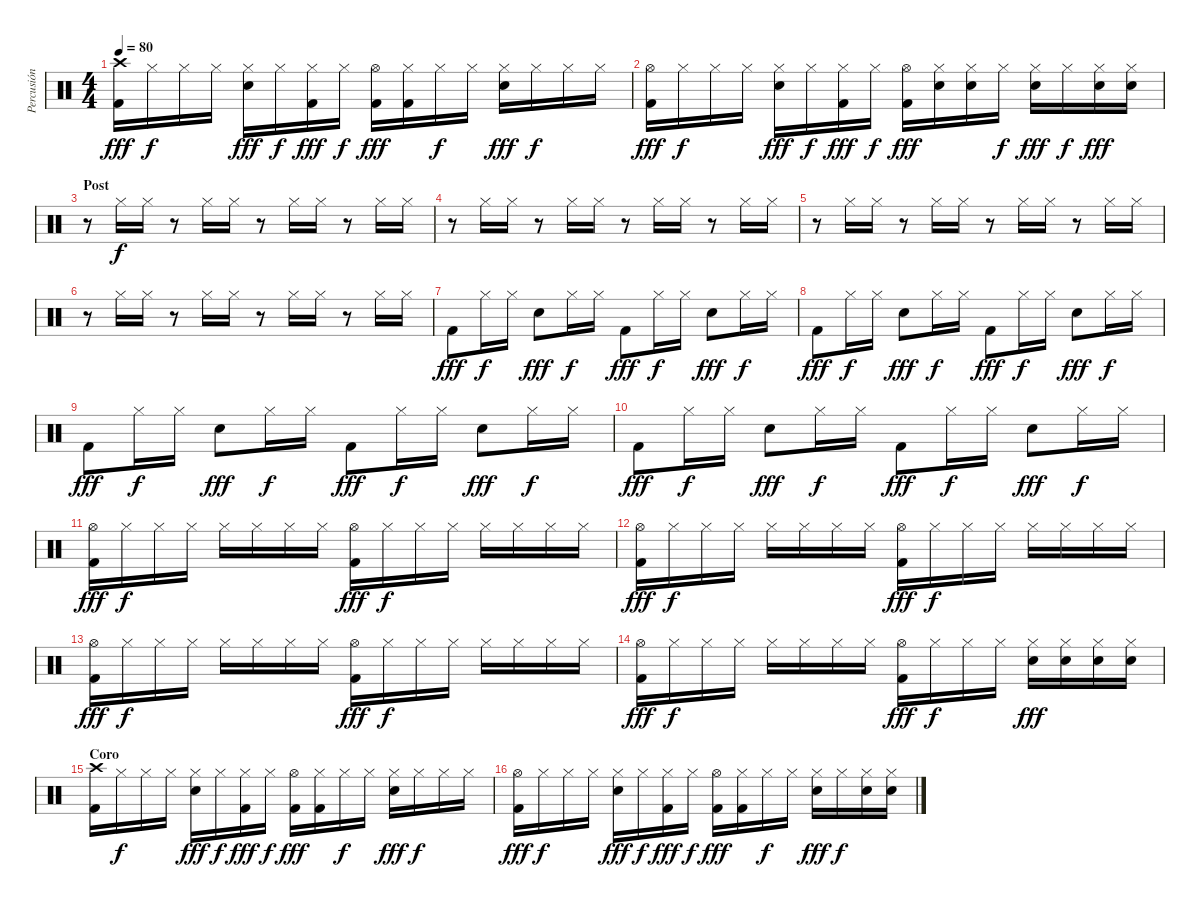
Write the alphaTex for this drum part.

\track ("Percusión" "Percusión") {instrument percussion}
\staff {score}
\articulation defaults
\ts (4 4)
\tempo 80
\clef neutral
\ks c
("Crash high (hit)" "Kick (hit) 2").16{dy fff} "Hi-Hat (closed)".16{dy f} "Hi-Hat (closed)".16 "Hi-Hat (closed)".16 ("Hi-Hat (closed)" "Snare (hit) 2").16{dy fff} "Hi-Hat (closed)".16{dy f} ("Hi-Hat (closed)" "Kick (hit) 2").16{dy fff} "Hi-Hat (closed)".16{dy f} ("Hi-Hat (open)" "Kick (hit) 2").16{dy fff} ("Hi-Hat (closed)" "Kick (hit) 2").16 "Hi-Hat (closed)".16{dy f} "Hi-Hat (closed)".16 ("Hi-Hat (closed)" "Snare (hit) 2").16{dy fff} "Hi-Hat (closed)".16{dy f} "Hi-Hat (closed)".16 "Hi-Hat (closed)".16 |
("Hi-Hat (open)" "Kick (hit) 2").16{dy fff} "Hi-Hat (closed)".16{dy f} "Hi-Hat (closed)".16 "Hi-Hat (closed)".16 ("Hi-Hat (closed)" "Snare (hit) 2").16{dy fff} "Hi-Hat (closed)".16{dy f} ("Hi-Hat (closed)" "Kick (hit) 2").16{dy fff} "Hi-Hat (closed)".16{dy f} ("Hi-Hat (open)" "Kick (hit) 2").16{dy fff} ("Hi-Hat (closed)" "Snare (hit) 2").16 ("Hi-Hat (closed)" "Snare (hit) 2").16 "Hi-Hat (closed)".16{dy f} ("Hi-Hat (closed)" "Snare (hit) 2").16{dy fff} "Hi-Hat (closed)".16{dy f} ("Hi-Hat (closed)" "Snare (hit) 2").16{dy fff} ("Hi-Hat (closed)" "Snare (hit) 2").16 |
\section ("" "Post")
r.8 "Hi-Hat (closed)".16{dy f} "Hi-Hat (closed)".16 r.8 "Hi-Hat (closed)".16 "Hi-Hat (closed)".16 r.8 "Hi-Hat (closed)".16 "Hi-Hat (closed)".16 r.8 "Hi-Hat (closed)".16 "Hi-Hat (closed)".16 |
r.8 "Hi-Hat (closed)".16 "Hi-Hat (closed)".16 r.8 "Hi-Hat (closed)".16 "Hi-Hat (closed)".16 r.8 "Hi-Hat (closed)".16 "Hi-Hat (closed)".16 r.8 "Hi-Hat (closed)".16 "Hi-Hat (closed)".16 |
r.8 "Hi-Hat (closed)".16 "Hi-Hat (closed)".16 r.8 "Hi-Hat (closed)".16 "Hi-Hat (closed)".16 r.8 "Hi-Hat (closed)".16 "Hi-Hat (closed)".16 r.8 "Hi-Hat (closed)".16 "Hi-Hat (closed)".16 |
r.8 "Hi-Hat (closed)".16 "Hi-Hat (closed)".16 r.8 "Hi-Hat (closed)".16 "Hi-Hat (closed)".16 r.8 "Hi-Hat (closed)".16 "Hi-Hat (closed)".16 r.8 "Hi-Hat (closed)".16 "Hi-Hat (closed)".16 |
"Kick (hit) 2".8{dy fff} "Hi-Hat (closed)".16{dy f} "Hi-Hat (closed)".16 "Snare (hit) 2".8{dy fff} "Hi-Hat (closed)".16{dy f} "Hi-Hat (closed)".16 "Kick (hit) 2".8{dy fff} "Hi-Hat (closed)".16{dy f} "Hi-Hat (closed)".16 "Snare (hit) 2".8{dy fff} "Hi-Hat (closed)".16{dy f} "Hi-Hat (closed)".16 |
"Kick (hit) 2".8{dy fff} "Hi-Hat (closed)".16{dy f} "Hi-Hat (closed)".16 "Snare (hit) 2".8{dy fff} "Hi-Hat (closed)".16{dy f} "Hi-Hat (closed)".16 "Kick (hit) 2".8{dy fff} "Hi-Hat (closed)".16{dy f} "Hi-Hat (closed)".16 "Snare (hit) 2".8{dy fff} "Hi-Hat (closed)".16{dy f} "Hi-Hat (closed)".16 |
"Kick (hit) 2".8{dy fff} "Hi-Hat (closed)".16{dy f} "Hi-Hat (closed)".16 "Snare (hit) 2".8{dy fff} "Hi-Hat (closed)".16{dy f} "Hi-Hat (closed)".16 "Kick (hit) 2".8{dy fff} "Hi-Hat (closed)".16{dy f} "Hi-Hat (closed)".16 "Snare (hit) 2".8{dy fff} "Hi-Hat (closed)".16{dy f} "Hi-Hat (closed)".16 |
"Kick (hit) 2".8{dy fff} "Hi-Hat (closed)".16{dy f} "Hi-Hat (closed)".16 "Snare (hit) 2".8{dy fff} "Hi-Hat (closed)".16{dy f} "Hi-Hat (closed)".16 "Kick (hit) 2".8{dy fff} "Hi-Hat (closed)".16{dy f} "Hi-Hat (closed)".16 "Snare (hit) 2".8{dy fff} "Hi-Hat (closed)".16{dy f} "Hi-Hat (closed)".16 |
("Hi-Hat (open)" "Kick (hit) 2").16{dy fff} "Hi-Hat (closed)".16{dy f} "Hi-Hat (closed)".16 "Hi-Hat (closed)".16 "Hi-Hat (closed)".16 "Hi-Hat (closed)".16 "Hi-Hat (closed)".16 "Hi-Hat (closed)".16 ("Hi-Hat (open)" "Kick (hit) 2").16{dy fff} "Hi-Hat (closed)".16{dy f} "Hi-Hat (closed)".16 "Hi-Hat (closed)".16 "Hi-Hat (closed)".16 "Hi-Hat (closed)".16 "Hi-Hat (closed)".16 "Hi-Hat (closed)".16 |
("Hi-Hat (open)" "Kick (hit) 2").16{dy fff} "Hi-Hat (closed)".16{dy f} "Hi-Hat (closed)".16 "Hi-Hat (closed)".16 "Hi-Hat (closed)".16 "Hi-Hat (closed)".16 "Hi-Hat (closed)".16 "Hi-Hat (closed)".16 ("Hi-Hat (open)" "Kick (hit) 2").16{dy fff} "Hi-Hat (closed)".16{dy f} "Hi-Hat (closed)".16 "Hi-Hat (closed)".16 "Hi-Hat (closed)".16 "Hi-Hat (closed)".16 "Hi-Hat (closed)".16 "Hi-Hat (closed)".16 |
("Hi-Hat (open)" "Kick (hit) 2").16{dy fff} "Hi-Hat (closed)".16{dy f} "Hi-Hat (closed)".16 "Hi-Hat (closed)".16 "Hi-Hat (closed)".16 "Hi-Hat (closed)".16 "Hi-Hat (closed)".16 "Hi-Hat (closed)".16 ("Hi-Hat (open)" "Kick (hit) 2").16{dy fff} "Hi-Hat (closed)".16{dy f} "Hi-Hat (closed)".16 "Hi-Hat (closed)".16 "Hi-Hat (closed)".16 "Hi-Hat (closed)".16 "Hi-Hat (closed)".16 "Hi-Hat (closed)".16 |
("Hi-Hat (open)" "Kick (hit) 2").16{dy fff} "Hi-Hat (closed)".16{dy f} "Hi-Hat (closed)".16 "Hi-Hat (closed)".16 "Hi-Hat (closed)".16 "Hi-Hat (closed)".16 "Hi-Hat (closed)".16 "Hi-Hat (closed)".16 ("Hi-Hat (open)" "Kick (hit) 2").16{dy fff} "Hi-Hat (closed)".16{dy f} "Hi-Hat (closed)".16 "Hi-Hat (closed)".16 ("Hi-Hat (closed)" "Snare (hit) 2").16{dy fff} ("Hi-Hat (closed)" "Snare (hit) 2").16 ("Hi-Hat (closed)" "Snare (hit) 2").16 ("Hi-Hat (closed)" "Snare (hit) 2").16 |
\section ("" "Coro")
("Crash high (hit)" "Kick (hit) 2").16 "Hi-Hat (closed)".16{dy f} "Hi-Hat (closed)".16 "Hi-Hat (closed)".16 ("Hi-Hat (closed)" "Snare (hit) 2").16{dy fff} "Hi-Hat (closed)".16{dy f} ("Hi-Hat (closed)" "Kick (hit) 2").16{dy fff} "Hi-Hat (closed)".16{dy f} ("Hi-Hat (open)" "Kick (hit) 2").16{dy fff} ("Hi-Hat (closed)" "Kick (hit) 2").16 "Hi-Hat (closed)".16{dy f} "Hi-Hat (closed)".16 ("Hi-Hat (closed)" "Snare (hit) 2").16{dy fff} "Hi-Hat (closed)".16{dy f} "Hi-Hat (closed)".16 "Hi-Hat (closed)".16 |
("Hi-Hat (open)" "Kick (hit) 2").16{dy fff} "Hi-Hat (closed)".16{dy f} "Hi-Hat (closed)".16 "Hi-Hat (closed)".16 ("Hi-Hat (closed)" "Snare (hit) 2").16{dy fff} "Hi-Hat (closed)".16{dy f} ("Hi-Hat (closed)" "Kick (hit) 2").16{dy fff} "Hi-Hat (closed)".16{dy f} ("Hi-Hat (open)" "Kick (hit) 2").16{dy fff} ("Hi-Hat (closed)" "Kick (hit) 2").16 "Hi-Hat (closed)".16{dy f} "Hi-Hat (closed)".16 ("Hi-Hat (closed)" "Snare (hit) 2").16{dy fff} "Hi-Hat (closed)".16{dy f} ("Hi-Hat (closed)" "Snare (hit) 2").16 ("Hi-Hat (closed)" "Snare (hit) 2").16
